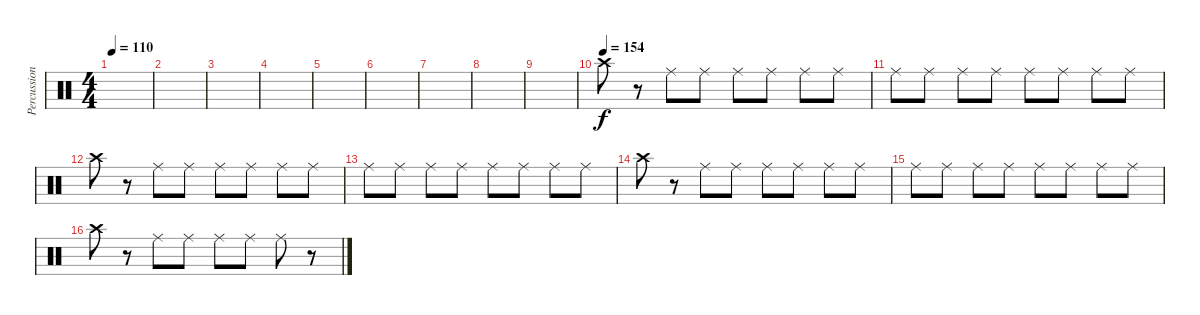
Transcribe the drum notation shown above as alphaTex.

\track ("Percussion" "Percussion") {instrument percussion}
\staff {score}
\articulation defaults
\ts (4 4)
\tempo 110
\clef neutral
\ks c
|
|
|
|
|
|
|
|
|
\tempo (154)
"Crash high (hit)".8 r.8 "Ride (middle)".8 "Ride (middle)".8 "Ride (middle)".8 "Ride (middle)".8 "Ride (middle)".8 "Ride (middle)".8 |
"Ride (middle)".8 "Ride (middle)".8 "Ride (middle)".8 "Ride (middle)".8 "Ride (middle)".8 "Ride (middle)".8 "Ride (middle)".8 "Ride (middle)".8 |
"Crash high (hit)".8 r.8 "Ride (middle)".8 "Ride (middle)".8 "Ride (middle)".8 "Ride (middle)".8 "Ride (middle)".8 "Ride (middle)".8 |
"Ride (middle)".8 "Ride (middle)".8 "Ride (middle)".8 "Ride (middle)".8 "Ride (middle)".8 "Ride (middle)".8 "Ride (middle)".8 "Ride (middle)".8 |
"Crash high (hit)".8 r.8 "Ride (middle)".8 "Ride (middle)".8 "Ride (middle)".8 "Ride (middle)".8 "Ride (middle)".8 "Ride (middle)".8 |
"Ride (middle)".8 "Ride (middle)".8 "Ride (middle)".8 "Ride (middle)".8 "Ride (middle)".8 "Ride (middle)".8 "Ride (middle)".8 "Ride (middle)".8 |
"Crash high (hit)".8 r.8 "Ride (middle)".8 "Ride (middle)".8 "Ride (middle)".8 "Ride (middle)".8 "Ride (middle)".8 r.8
